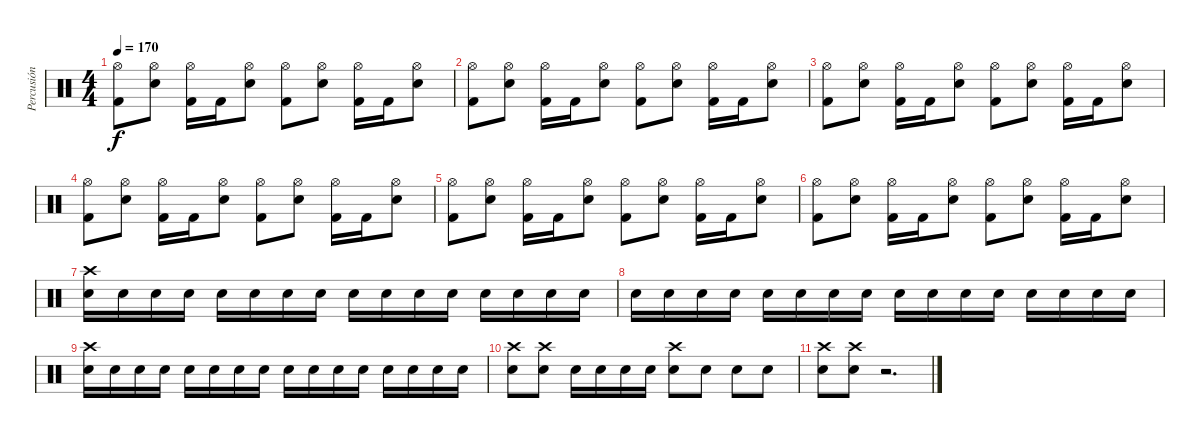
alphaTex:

\track ("Percusión" "Percusión") {instrument percussion}
\staff {score}
\articulation defaults
\ts (4 4)
\tempo 170
\clef neutral
\ks c
("Kick (hit) 2" "Hi-Hat (open)").8{dy f} ("Snare (hit) 2" "Hi-Hat (open)").8 ("Kick (hit) 2" "Hi-Hat (open)").16 "Kick (hit) 2".16 ("Snare (hit) 2" "Hi-Hat (open)").8 ("Kick (hit) 2" "Hi-Hat (open)").8 ("Snare (hit) 2" "Hi-Hat (open)").8 ("Kick (hit) 2" "Hi-Hat (open)").16 "Kick (hit) 2".16 ("Snare (hit) 2" "Hi-Hat (open)").8 |
("Kick (hit) 2" "Hi-Hat (open)").8 ("Snare (hit) 2" "Hi-Hat (open)").8 ("Kick (hit) 2" "Hi-Hat (open)").16 "Kick (hit) 2".16 ("Snare (hit) 2" "Hi-Hat (open)").8 ("Kick (hit) 2" "Hi-Hat (open)").8 ("Snare (hit) 2" "Hi-Hat (open)").8 ("Kick (hit) 2" "Hi-Hat (open)").16 "Kick (hit) 2".16 ("Snare (hit) 2" "Hi-Hat (open)").8 |
("Kick (hit) 2" "Hi-Hat (open)").8 ("Snare (hit) 2" "Hi-Hat (open)").8 ("Kick (hit) 2" "Hi-Hat (open)").16 "Kick (hit) 2".16 ("Snare (hit) 2" "Hi-Hat (open)").8 ("Kick (hit) 2" "Hi-Hat (open)").8 ("Snare (hit) 2" "Hi-Hat (open)").8 ("Kick (hit) 2" "Hi-Hat (open)").16 "Kick (hit) 2".16 ("Snare (hit) 2" "Hi-Hat (open)").8 |
("Kick (hit) 2" "Hi-Hat (open)").8 ("Snare (hit) 2" "Hi-Hat (open)").8 ("Kick (hit) 2" "Hi-Hat (open)").16 "Kick (hit) 2".16 ("Snare (hit) 2" "Hi-Hat (open)").8 ("Kick (hit) 2" "Hi-Hat (open)").8 ("Snare (hit) 2" "Hi-Hat (open)").8 ("Kick (hit) 2" "Hi-Hat (open)").16 "Kick (hit) 2".16 ("Snare (hit) 2" "Hi-Hat (open)").8 |
("Kick (hit) 2" "Hi-Hat (open)").8 ("Snare (hit) 2" "Hi-Hat (open)").8 ("Kick (hit) 2" "Hi-Hat (open)").16 "Kick (hit) 2".16 ("Snare (hit) 2" "Hi-Hat (open)").8 ("Kick (hit) 2" "Hi-Hat (open)").8 ("Snare (hit) 2" "Hi-Hat (open)").8 ("Kick (hit) 2" "Hi-Hat (open)").16 "Kick (hit) 2".16 ("Snare (hit) 2" "Hi-Hat (open)").8 |
("Kick (hit) 2" "Hi-Hat (open)").8 ("Snare (hit) 2" "Hi-Hat (open)").8 ("Kick (hit) 2" "Hi-Hat (open)").16 "Kick (hit) 2".16 ("Snare (hit) 2" "Hi-Hat (open)").8 ("Kick (hit) 2" "Hi-Hat (open)").8 ("Snare (hit) 2" "Hi-Hat (open)").8 ("Kick (hit) 2" "Hi-Hat (open)").16 "Kick (hit) 2".16 ("Snare (hit) 2" "Hi-Hat (open)").8 |
("Snare (hit) 2" "Crash high (hit)").16 "Snare (hit) 2".16 "Snare (hit) 2".16 "Snare (hit) 2".16 "Snare (hit) 2".16 "Snare (hit) 2".16 "Snare (hit) 2".16 "Snare (hit) 2".16 "Snare (hit) 2".16 "Snare (hit) 2".16 "Snare (hit) 2".16 "Snare (hit) 2".16 "Snare (hit) 2".16 "Snare (hit) 2".16 "Snare (hit) 2".16 "Snare (hit) 2".16 |
"Snare (hit) 2".16 "Snare (hit) 2".16 "Snare (hit) 2".16 "Snare (hit) 2".16 "Snare (hit) 2".16 "Snare (hit) 2".16 "Snare (hit) 2".16 "Snare (hit) 2".16 "Snare (hit) 2".16 "Snare (hit) 2".16 "Snare (hit) 2".16 "Snare (hit) 2".16 "Snare (hit) 2".16 "Snare (hit) 2".16 "Snare (hit) 2".16 "Snare (hit) 2".16 |
("Snare (hit) 2" "Crash high (hit)").16 "Snare (hit) 2".16 "Snare (hit) 2".16 "Snare (hit) 2".16 "Snare (hit) 2".16 "Snare (hit) 2".16 "Snare (hit) 2".16 "Snare (hit) 2".16 "Snare (hit) 2".16 "Snare (hit) 2".16 "Snare (hit) 2".16 "Snare (hit) 2".16 "Snare (hit) 2".16 "Snare (hit) 2".16 "Snare (hit) 2".16 "Snare (hit) 2".16 |
("Snare (hit) 2" "Crash high (hit)").8 ("Snare (hit) 2" "Crash high (hit)").8 "Snare (hit) 2".16 "Snare (hit) 2".16 "Snare (hit) 2".16 "Snare (hit) 2".16 ("Snare (hit) 2" "Crash high (hit)").8 "Snare (hit) 2".8 "Snare (hit) 2".8 "Snare (hit) 2".8 |
("Snare (hit) 2" "Crash high (hit)").8 ("Snare (hit) 2" "Crash high (hit)").8 r.2{d}
